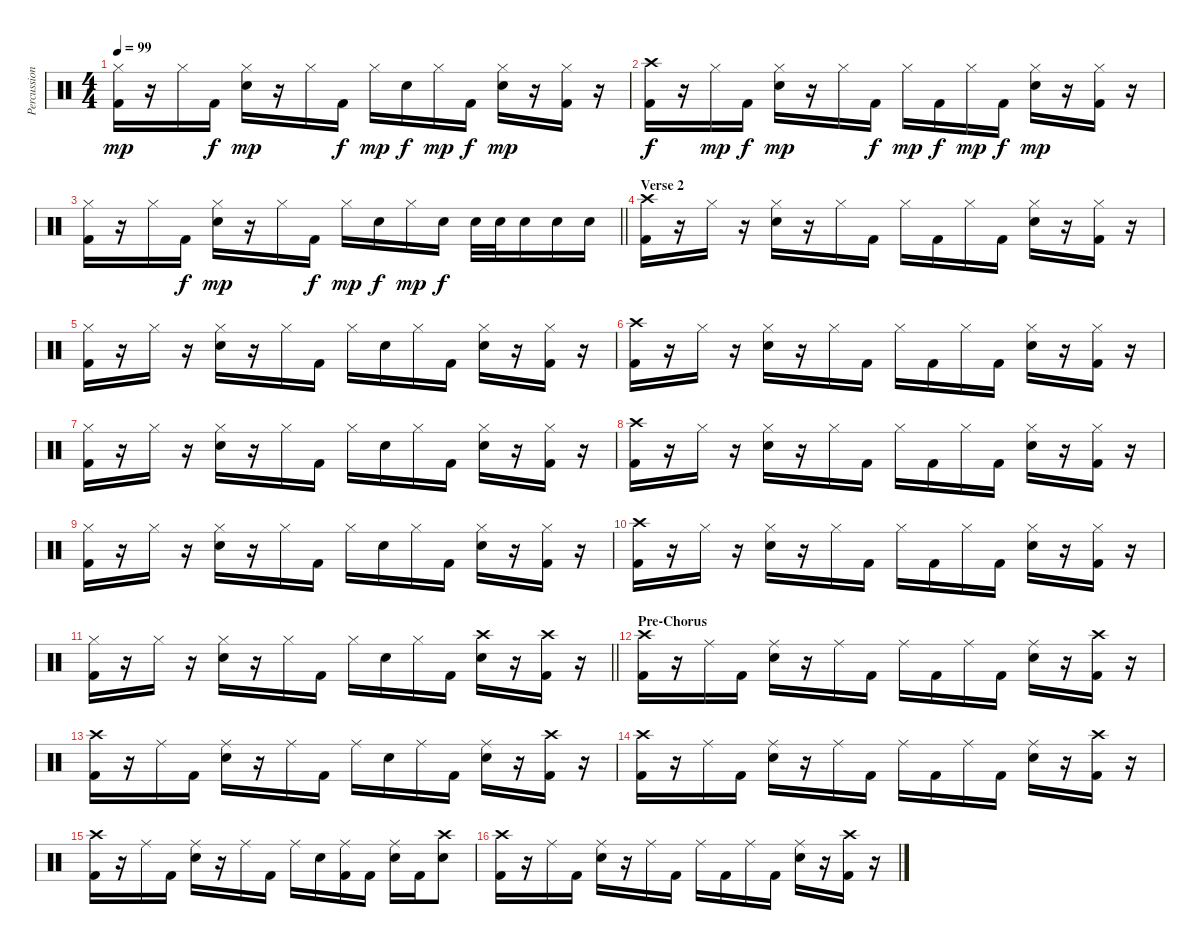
\track ("Percussion" "Percussion") {instrument percussion}
\staff {score}
\articulation defaults
\ts (4 4)
\tempo 99
\clef neutral
\ks c
("Hi-Hat (closed)" "Kick (hit) 2").16{dy mp} r.16 "Hi-Hat (closed)".16 "Kick (hit) 2".16{dy f} ("Hi-Hat (closed)" "Snare (hit) 2").16{dy mp} r.16 "Hi-Hat (closed)".16 "Kick (hit) 2".16{dy f} "Hi-Hat (closed)".16{dy mp} "Snare (hit) 2".16{dy f} "Hi-Hat (closed)".16{dy mp} "Kick (hit) 2".16{dy f} ("Hi-Hat (closed)" "Snare (hit) 2").16{dy mp} r.16 ("Hi-Hat (closed)" "Kick (hit) 2").16 r.16 |
("Crash high (hit)" "Kick (hit) 2").16{dy f} r.16 "Hi-Hat (closed)".16{dy mp} "Kick (hit) 2".16{dy f} ("Hi-Hat (closed)" "Snare (hit) 2").16{dy mp} r.16 "Hi-Hat (closed)".16 "Kick (hit) 2".16{dy f} "Hi-Hat (closed)".16{dy mp} "Kick (hit) 2".16{dy f} "Hi-Hat (closed)".16{dy mp} "Kick (hit) 2".16{dy f} ("Hi-Hat (closed)" "Snare (hit) 2").16{dy mp} r.16 ("Hi-Hat (closed)" "Kick (hit) 2").16 r.16 |
\barLineRight lightlight
("Hi-Hat (closed)" "Kick (hit) 2").16 r.16 "Hi-Hat (closed)".16 "Kick (hit) 2".16{dy f} ("Hi-Hat (closed)" "Snare (hit) 2").16{dy mp} r.16 "Hi-Hat (closed)".16 "Kick (hit) 2".16{dy f} "Hi-Hat (closed)".16{dy mp} "Snare (hit) 2".16{dy f} "Hi-Hat (closed)".16{dy mp} "Snare (hit) 2".16{dy f} "Snare (hit) 2".32 "Snare (hit) 2".32 "Snare (hit) 2".16 "Snare (hit) 2".16 "Snare (hit) 2".16 |
\section ("" "Verse 2")
("Crash high (hit)" "Kick (hit) 2").16 r.16 "Hi-Hat (closed)".16 r.16 ("Hi-Hat (closed)" "Snare (hit) 2").16 r.16 "Hi-Hat (closed)".16 "Kick (hit) 2".16 "Hi-Hat (closed)".16 "Kick (hit) 2".16 "Hi-Hat (closed)".16 "Kick (hit) 2".16 ("Hi-Hat (closed)" "Snare (hit) 2").16 r.16 ("Hi-Hat (closed)" "Kick (hit) 2").16 r.16 |
("Hi-Hat (closed)" "Kick (hit) 2").16 r.16 "Hi-Hat (closed)".16 r.16 ("Hi-Hat (closed)" "Snare (hit) 2").16 r.16 "Hi-Hat (closed)".16 "Kick (hit) 2".16 "Hi-Hat (closed)".16 "Snare (hit) 2".16 "Hi-Hat (closed)".16 "Kick (hit) 2".16 ("Hi-Hat (closed)" "Snare (hit) 2").16 r.16 ("Hi-Hat (closed)" "Kick (hit) 2").16 r.16 |
("Crash high (hit)" "Kick (hit) 2").16 r.16 "Hi-Hat (closed)".16 r.16 ("Hi-Hat (closed)" "Snare (hit) 2").16 r.16 "Hi-Hat (closed)".16 "Kick (hit) 2".16 "Hi-Hat (closed)".16 "Kick (hit) 2".16 "Hi-Hat (closed)".16 "Kick (hit) 2".16 ("Hi-Hat (closed)" "Snare (hit) 2").16 r.16 ("Hi-Hat (closed)" "Kick (hit) 2").16 r.16 |
("Hi-Hat (closed)" "Kick (hit) 2").16 r.16 "Hi-Hat (closed)".16 r.16 ("Hi-Hat (closed)" "Snare (hit) 2").16 r.16 "Hi-Hat (closed)".16 "Kick (hit) 2".16 "Hi-Hat (closed)".16 "Snare (hit) 2".16 "Hi-Hat (closed)".16 "Kick (hit) 2".16 ("Hi-Hat (closed)" "Snare (hit) 2").16 r.16 ("Hi-Hat (closed)" "Kick (hit) 2").16 r.16 |
("Crash high (hit)" "Kick (hit) 2").16 r.16 "Hi-Hat (closed)".16 r.16 ("Hi-Hat (closed)" "Snare (hit) 2").16 r.16 "Hi-Hat (closed)".16 "Kick (hit) 2".16 "Hi-Hat (closed)".16 "Kick (hit) 2".16 "Hi-Hat (closed)".16 "Kick (hit) 2".16 ("Hi-Hat (closed)" "Snare (hit) 2").16 r.16 ("Hi-Hat (closed)" "Kick (hit) 2").16 r.16 |
("Hi-Hat (closed)" "Kick (hit) 2").16 r.16 "Hi-Hat (closed)".16 r.16 ("Hi-Hat (closed)" "Snare (hit) 2").16 r.16 "Hi-Hat (closed)".16 "Kick (hit) 2".16 "Hi-Hat (closed)".16 "Snare (hit) 2".16 "Hi-Hat (closed)".16 "Kick (hit) 2".16 ("Hi-Hat (closed)" "Snare (hit) 2").16 r.16 ("Hi-Hat (closed)" "Kick (hit) 2").16 r.16 |
("Crash high (hit)" "Kick (hit) 2").16 r.16 "Hi-Hat (closed)".16 r.16 ("Hi-Hat (closed)" "Snare (hit) 2").16 r.16 "Hi-Hat (closed)".16 "Kick (hit) 2".16 "Hi-Hat (closed)".16 "Kick (hit) 2".16 "Hi-Hat (closed)".16 "Kick (hit) 2".16 ("Hi-Hat (closed)" "Snare (hit) 2").16 r.16 ("Hi-Hat (closed)" "Kick (hit) 2").16 r.16 |
\barLineRight lightlight
("Hi-Hat (closed)" "Kick (hit) 2").16 r.16 "Hi-Hat (closed)".16 r.16 ("Hi-Hat (closed)" "Snare (hit) 2").16 r.16 "Hi-Hat (closed)".16 "Kick (hit) 2".16 "Hi-Hat (closed)".16 "Snare (hit) 2".16 "Hi-Hat (closed)".16 "Kick (hit) 2".16 ("Crash high (hit)" "Snare (hit) 2").16 r.16 ("Crash high (hit)" "Kick (hit) 2").16 r.16 |
\section ("" "Pre-Chorus")
("Crash high (hit)" "Kick (hit) 2").16 r.16 "Ride (middle)".16 "Kick (hit) 2".16 ("Ride (middle)" "Snare (hit) 2").16 r.16 "Ride (middle)".16 "Kick (hit) 2".16 "Ride (middle)".16 "Kick (hit) 2".16 "Ride (middle)".16 "Kick (hit) 2".16 ("Ride (middle)" "Snare (hit) 2").16 r.16 ("Crash high (hit)" "Kick (hit) 2").16 r.16 |
("Crash high (hit)" "Kick (hit) 2").16 r.16 "Ride (middle)".16 "Kick (hit) 2".16 ("Ride (middle)" "Snare (hit) 2").16 r.16 "Ride (middle)".16 "Kick (hit) 2".16 "Ride (middle)".16 "Snare (hit) 2".16 "Ride (middle)".16 "Kick (hit) 2".16 ("Ride (middle)" "Snare (hit) 2").16 r.16 ("Crash high (hit)" "Kick (hit) 2").16 r.16 |
("Crash high (hit)" "Kick (hit) 2").16 r.16 "Ride (middle)".16 "Kick (hit) 2".16 ("Ride (middle)" "Snare (hit) 2").16 r.16 "Ride (middle)".16 "Kick (hit) 2".16 "Ride (middle)".16 "Kick (hit) 2".16 "Ride (middle)".16 "Kick (hit) 2".16 ("Ride (middle)" "Snare (hit) 2").16 r.16 ("Crash high (hit)" "Kick (hit) 2").16 r.16 |
("Crash high (hit)" "Kick (hit) 2").16 r.16 "Ride (middle)".16 "Kick (hit) 2".16 ("Ride (middle)" "Snare (hit) 2").16 r.16 "Ride (middle)".16 "Kick (hit) 2".16 "Ride (middle)".16 "Snare (hit) 2".16 ("Ride (middle)" "Kick (hit) 2").16 "Kick (hit) 2".16 ("Ride (middle)" "Snare (hit) 2").16 "Kick (hit) 2".16 ("Crash high (hit)" "Snare (hit) 2").8 |
("Crash high (hit)" "Kick (hit) 2").16 r.16 "Ride (middle)".16 "Kick (hit) 2".16 ("Ride (middle)" "Snare (hit) 2").16 r.16 "Ride (middle)".16 "Kick (hit) 2".16 "Ride (middle)".16 "Kick (hit) 2".16 "Ride (middle)".16 "Kick (hit) 2".16 ("Ride (middle)" "Snare (hit) 2").16 r.16 ("Crash high (hit)" "Kick (hit) 2").16 r.16
